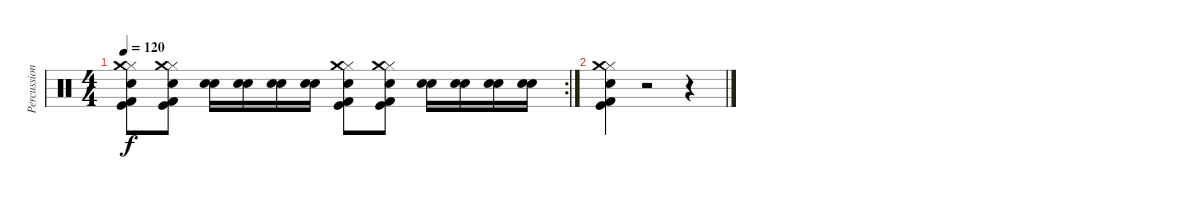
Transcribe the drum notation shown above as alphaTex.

\track ("Percussion" "Percussion") {instrument percussion}
\staff {score}
\articulation defaults
\rc 2
\ts (4 4)
\tempo 120
\clef neutral
\ks c
("Hi-Hat (closed)" "Kick (hit)" "Kick (hit) 2" "Snare (hit) 2" "Crash medium (hit)").8{dy f} ("Hi-Hat (closed)" "Kick (hit)" "Kick (hit) 2" "Snare (hit) 2" "Crash medium (hit)").8 ("Snare (hit) 2" "Electric Snare (hit)").16 ("Snare (hit) 2" "Electric Snare (hit)").16 ("Snare (hit) 2" "Electric Snare (hit)").16 ("Snare (hit) 2" "Electric Snare (hit)").16 ("Hi-Hat (closed)" "Kick (hit)" "Kick (hit) 2" "Snare (hit) 2" "Crash medium (hit)").8 ("Hi-Hat (closed)" "Kick (hit)" "Kick (hit) 2" "Snare (hit) 2" "Crash medium (hit)").8 ("Snare (hit) 2" "Electric Snare (hit)").16 ("Snare (hit) 2" "Electric Snare (hit)").16 ("Snare (hit) 2" "Electric Snare (hit)").16 ("Snare (hit) 2" "Electric Snare (hit)").16 |
("Hi-Hat (closed)" "Kick (hit)" "Kick (hit) 2" "Snare (hit) 2" "Crash medium (hit)").4 r.2 r.4
